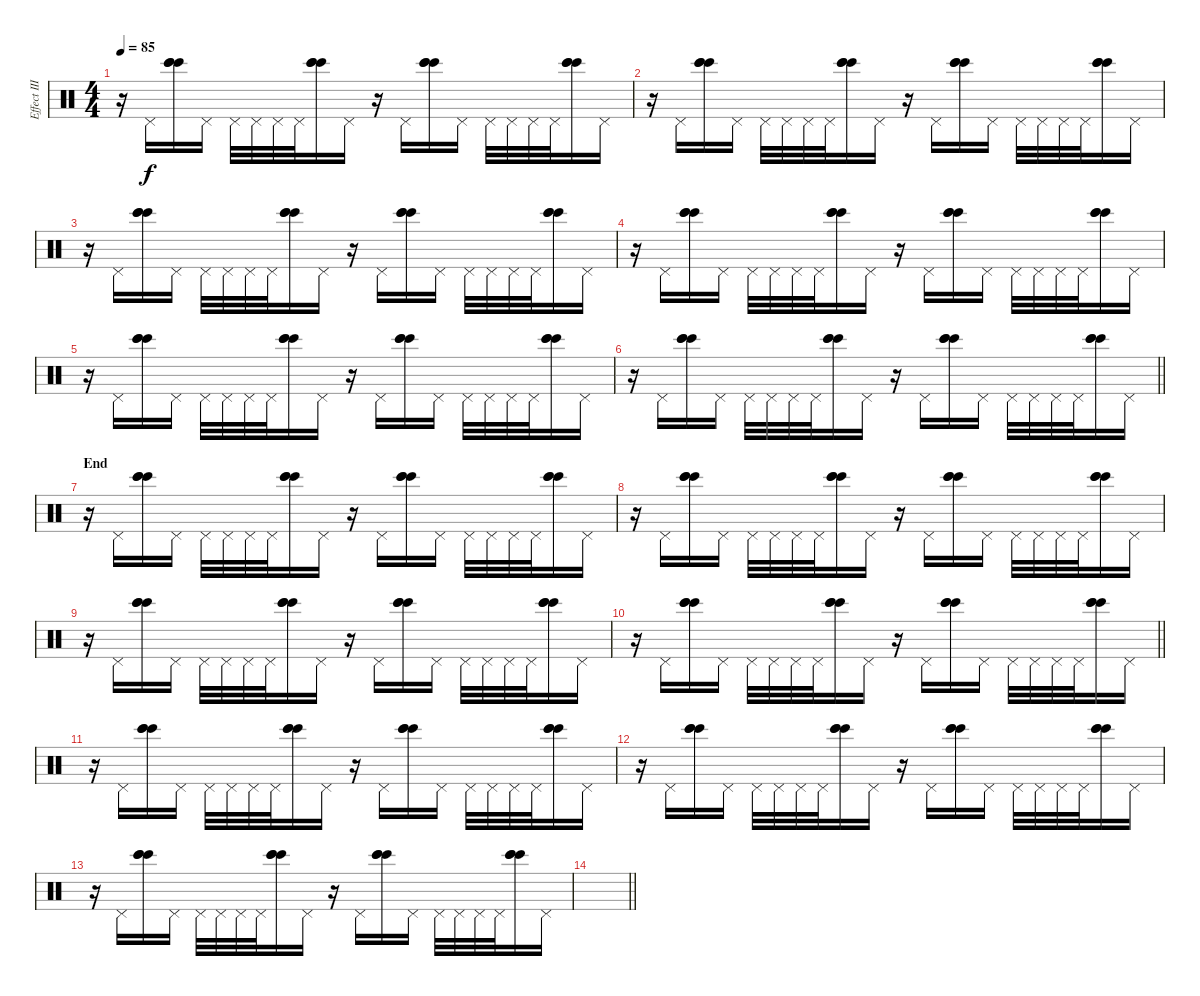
\track ("Effect III" "Effect III") {instrument percussion}
\staff {score}
\articulation defaults
\ts (4 4)
\tempo 85
\clef neutral
\ks c
r.16{dy f} "Pedal Hi-Hat (hit)".16 ("Bongo High (hit)" "Bongo High (hit)" "Bongo High (hit)").16 "Pedal Hi-Hat (hit)".16 "Pedal Hi-Hat (hit)".32 "Pedal Hi-Hat (hit)".32 "Pedal Hi-Hat (hit)".32 "Pedal Hi-Hat (hit)".32 ("Bongo High (hit)" "Bongo High (hit)" "Bongo High (hit)").16 "Pedal Hi-Hat (hit)".16 r.16 "Pedal Hi-Hat (hit)".16 ("Bongo High (hit)" "Bongo High (hit)" "Bongo High (hit)").16 "Pedal Hi-Hat (hit)".16 "Pedal Hi-Hat (hit)".32 "Pedal Hi-Hat (hit)".32 "Pedal Hi-Hat (hit)".32 "Pedal Hi-Hat (hit)".32 ("Bongo High (hit)" "Bongo High (hit)" "Bongo High (hit)").16 "Pedal Hi-Hat (hit)".16 |
r.16 "Pedal Hi-Hat (hit)".16 ("Bongo High (hit)" "Bongo High (hit)" "Bongo High (hit)").16 "Pedal Hi-Hat (hit)".16 "Pedal Hi-Hat (hit)".32 "Pedal Hi-Hat (hit)".32 "Pedal Hi-Hat (hit)".32 "Pedal Hi-Hat (hit)".32 ("Bongo High (hit)" "Bongo High (hit)" "Bongo High (hit)").16 "Pedal Hi-Hat (hit)".16 r.16 "Pedal Hi-Hat (hit)".16 ("Bongo High (hit)" "Bongo High (hit)" "Bongo High (hit)").16 "Pedal Hi-Hat (hit)".16 "Pedal Hi-Hat (hit)".32 "Pedal Hi-Hat (hit)".32 "Pedal Hi-Hat (hit)".32 "Pedal Hi-Hat (hit)".32 ("Bongo High (hit)" "Bongo High (hit)" "Bongo High (hit)").16 "Pedal Hi-Hat (hit)".16 |
r.16 "Pedal Hi-Hat (hit)".16 ("Bongo High (hit)" "Bongo High (hit)" "Bongo High (hit)").16 "Pedal Hi-Hat (hit)".16 "Pedal Hi-Hat (hit)".32 "Pedal Hi-Hat (hit)".32 "Pedal Hi-Hat (hit)".32 "Pedal Hi-Hat (hit)".32 ("Bongo High (hit)" "Bongo High (hit)" "Bongo High (hit)").16 "Pedal Hi-Hat (hit)".16 r.16 "Pedal Hi-Hat (hit)".16 ("Bongo High (hit)" "Bongo High (hit)" "Bongo High (hit)").16 "Pedal Hi-Hat (hit)".16 "Pedal Hi-Hat (hit)".32 "Pedal Hi-Hat (hit)".32 "Pedal Hi-Hat (hit)".32 "Pedal Hi-Hat (hit)".32 ("Bongo High (hit)" "Bongo High (hit)" "Bongo High (hit)").16 "Pedal Hi-Hat (hit)".16 |
r.16 "Pedal Hi-Hat (hit)".16 ("Bongo High (hit)" "Bongo High (hit)" "Bongo High (hit)").16 "Pedal Hi-Hat (hit)".16 "Pedal Hi-Hat (hit)".32 "Pedal Hi-Hat (hit)".32 "Pedal Hi-Hat (hit)".32 "Pedal Hi-Hat (hit)".32 ("Bongo High (hit)" "Bongo High (hit)" "Bongo High (hit)").16 "Pedal Hi-Hat (hit)".16 r.16 "Pedal Hi-Hat (hit)".16 ("Bongo High (hit)" "Bongo High (hit)" "Bongo High (hit)").16 "Pedal Hi-Hat (hit)".16 "Pedal Hi-Hat (hit)".32 "Pedal Hi-Hat (hit)".32 "Pedal Hi-Hat (hit)".32 "Pedal Hi-Hat (hit)".32 ("Bongo High (hit)" "Bongo High (hit)" "Bongo High (hit)").16 "Pedal Hi-Hat (hit)".16 |
r.16 "Pedal Hi-Hat (hit)".16 ("Bongo High (hit)" "Bongo High (hit)" "Bongo High (hit)").16 "Pedal Hi-Hat (hit)".16 "Pedal Hi-Hat (hit)".32 "Pedal Hi-Hat (hit)".32 "Pedal Hi-Hat (hit)".32 "Pedal Hi-Hat (hit)".32 ("Bongo High (hit)" "Bongo High (hit)" "Bongo High (hit)").16 "Pedal Hi-Hat (hit)".16 r.16 "Pedal Hi-Hat (hit)".16 ("Bongo High (hit)" "Bongo High (hit)" "Bongo High (hit)").16 "Pedal Hi-Hat (hit)".16 "Pedal Hi-Hat (hit)".32 "Pedal Hi-Hat (hit)".32 "Pedal Hi-Hat (hit)".32 "Pedal Hi-Hat (hit)".32 ("Bongo High (hit)" "Bongo High (hit)" "Bongo High (hit)").16 "Pedal Hi-Hat (hit)".16 |
\barLineRight lightlight
r.16 "Pedal Hi-Hat (hit)".16 ("Bongo High (hit)" "Bongo High (hit)" "Bongo High (hit)").16 "Pedal Hi-Hat (hit)".16 "Pedal Hi-Hat (hit)".32 "Pedal Hi-Hat (hit)".32 "Pedal Hi-Hat (hit)".32 "Pedal Hi-Hat (hit)".32 ("Bongo High (hit)" "Bongo High (hit)" "Bongo High (hit)").16 "Pedal Hi-Hat (hit)".16 r.16 "Pedal Hi-Hat (hit)".16 ("Bongo High (hit)" "Bongo High (hit)" "Bongo High (hit)").16 "Pedal Hi-Hat (hit)".16 "Pedal Hi-Hat (hit)".32 "Pedal Hi-Hat (hit)".32 "Pedal Hi-Hat (hit)".32 "Pedal Hi-Hat (hit)".32 ("Bongo High (hit)" "Bongo High (hit)" "Bongo High (hit)").16 "Pedal Hi-Hat (hit)".16 |
\section ("" "End")
r.16 "Pedal Hi-Hat (hit)".16 ("Bongo High (hit)" "Bongo High (hit)" "Bongo High (hit)").16 "Pedal Hi-Hat (hit)".16 "Pedal Hi-Hat (hit)".32 "Pedal Hi-Hat (hit)".32 "Pedal Hi-Hat (hit)".32 "Pedal Hi-Hat (hit)".32 ("Bongo High (hit)" "Bongo High (hit)" "Bongo High (hit)").16 "Pedal Hi-Hat (hit)".16 r.16 "Pedal Hi-Hat (hit)".16 ("Bongo High (hit)" "Bongo High (hit)" "Bongo High (hit)").16 "Pedal Hi-Hat (hit)".16 "Pedal Hi-Hat (hit)".32 "Pedal Hi-Hat (hit)".32 "Pedal Hi-Hat (hit)".32 "Pedal Hi-Hat (hit)".32 ("Bongo High (hit)" "Bongo High (hit)" "Bongo High (hit)").16 "Pedal Hi-Hat (hit)".16 |
r.16 "Pedal Hi-Hat (hit)".16 ("Bongo High (hit)" "Bongo High (hit)" "Bongo High (hit)").16 "Pedal Hi-Hat (hit)".16 "Pedal Hi-Hat (hit)".32 "Pedal Hi-Hat (hit)".32 "Pedal Hi-Hat (hit)".32 "Pedal Hi-Hat (hit)".32 ("Bongo High (hit)" "Bongo High (hit)" "Bongo High (hit)").16 "Pedal Hi-Hat (hit)".16 r.16 "Pedal Hi-Hat (hit)".16 ("Bongo High (hit)" "Bongo High (hit)" "Bongo High (hit)").16 "Pedal Hi-Hat (hit)".16 "Pedal Hi-Hat (hit)".32 "Pedal Hi-Hat (hit)".32 "Pedal Hi-Hat (hit)".32 "Pedal Hi-Hat (hit)".32 ("Bongo High (hit)" "Bongo High (hit)" "Bongo High (hit)").16 "Pedal Hi-Hat (hit)".16 |
r.16 "Pedal Hi-Hat (hit)".16 ("Bongo High (hit)" "Bongo High (hit)" "Bongo High (hit)").16 "Pedal Hi-Hat (hit)".16 "Pedal Hi-Hat (hit)".32 "Pedal Hi-Hat (hit)".32 "Pedal Hi-Hat (hit)".32 "Pedal Hi-Hat (hit)".32 ("Bongo High (hit)" "Bongo High (hit)" "Bongo High (hit)").16 "Pedal Hi-Hat (hit)".16 r.16 "Pedal Hi-Hat (hit)".16 ("Bongo High (hit)" "Bongo High (hit)" "Bongo High (hit)").16 "Pedal Hi-Hat (hit)".16 "Pedal Hi-Hat (hit)".32 "Pedal Hi-Hat (hit)".32 "Pedal Hi-Hat (hit)".32 "Pedal Hi-Hat (hit)".32 ("Bongo High (hit)" "Bongo High (hit)" "Bongo High (hit)").16 "Pedal Hi-Hat (hit)".16 |
\barLineRight lightlight
r.16 "Pedal Hi-Hat (hit)".16 ("Bongo High (hit)" "Bongo High (hit)" "Bongo High (hit)").16 "Pedal Hi-Hat (hit)".16 "Pedal Hi-Hat (hit)".32 "Pedal Hi-Hat (hit)".32 "Pedal Hi-Hat (hit)".32 "Pedal Hi-Hat (hit)".32 ("Bongo High (hit)" "Bongo High (hit)" "Bongo High (hit)").16 "Pedal Hi-Hat (hit)".16 r.16 "Pedal Hi-Hat (hit)".16 ("Bongo High (hit)" "Bongo High (hit)" "Bongo High (hit)").16 "Pedal Hi-Hat (hit)".16 "Pedal Hi-Hat (hit)".32 "Pedal Hi-Hat (hit)".32 "Pedal Hi-Hat (hit)".32 "Pedal Hi-Hat (hit)".32 ("Bongo High (hit)" "Bongo High (hit)" "Bongo High (hit)").16 "Pedal Hi-Hat (hit)".16 |
r.16 "Pedal Hi-Hat (hit)".16 ("Bongo High (hit)" "Bongo High (hit)" "Bongo High (hit)").16 "Pedal Hi-Hat (hit)".16 "Pedal Hi-Hat (hit)".32 "Pedal Hi-Hat (hit)".32 "Pedal Hi-Hat (hit)".32 "Pedal Hi-Hat (hit)".32 ("Bongo High (hit)" "Bongo High (hit)" "Bongo High (hit)").16 "Pedal Hi-Hat (hit)".16 r.16 "Pedal Hi-Hat (hit)".16 ("Bongo High (hit)" "Bongo High (hit)" "Bongo High (hit)").16 "Pedal Hi-Hat (hit)".16 "Pedal Hi-Hat (hit)".32 "Pedal Hi-Hat (hit)".32 "Pedal Hi-Hat (hit)".32 "Pedal Hi-Hat (hit)".32 ("Bongo High (hit)" "Bongo High (hit)" "Bongo High (hit)").16 "Pedal Hi-Hat (hit)".16 |
r.16 "Pedal Hi-Hat (hit)".16 ("Bongo High (hit)" "Bongo High (hit)" "Bongo High (hit)").16 "Pedal Hi-Hat (hit)".16 "Pedal Hi-Hat (hit)".32 "Pedal Hi-Hat (hit)".32 "Pedal Hi-Hat (hit)".32 "Pedal Hi-Hat (hit)".32 ("Bongo High (hit)" "Bongo High (hit)" "Bongo High (hit)").16 "Pedal Hi-Hat (hit)".16 r.16 "Pedal Hi-Hat (hit)".16 ("Bongo High (hit)" "Bongo High (hit)" "Bongo High (hit)").16 "Pedal Hi-Hat (hit)".16 "Pedal Hi-Hat (hit)".32 "Pedal Hi-Hat (hit)".32 "Pedal Hi-Hat (hit)".32 "Pedal Hi-Hat (hit)".32 ("Bongo High (hit)" "Bongo High (hit)" "Bongo High (hit)").16 "Pedal Hi-Hat (hit)".16 |
r.16 "Pedal Hi-Hat (hit)".16 ("Bongo High (hit)" "Bongo High (hit)" "Bongo High (hit)").16 "Pedal Hi-Hat (hit)".16 "Pedal Hi-Hat (hit)".32 "Pedal Hi-Hat (hit)".32 "Pedal Hi-Hat (hit)".32 "Pedal Hi-Hat (hit)".32 ("Bongo High (hit)" "Bongo High (hit)" "Bongo High (hit)").16 "Pedal Hi-Hat (hit)".16 r.16 "Pedal Hi-Hat (hit)".16 ("Bongo High (hit)" "Bongo High (hit)" "Bongo High (hit)").16 "Pedal Hi-Hat (hit)".16 "Pedal Hi-Hat (hit)".32 "Pedal Hi-Hat (hit)".32 "Pedal Hi-Hat (hit)".32 "Pedal Hi-Hat (hit)".32 ("Bongo High (hit)" "Bongo High (hit)" "Bongo High (hit)").16 "Pedal Hi-Hat (hit)".16 |
\barLineRight lightlight
